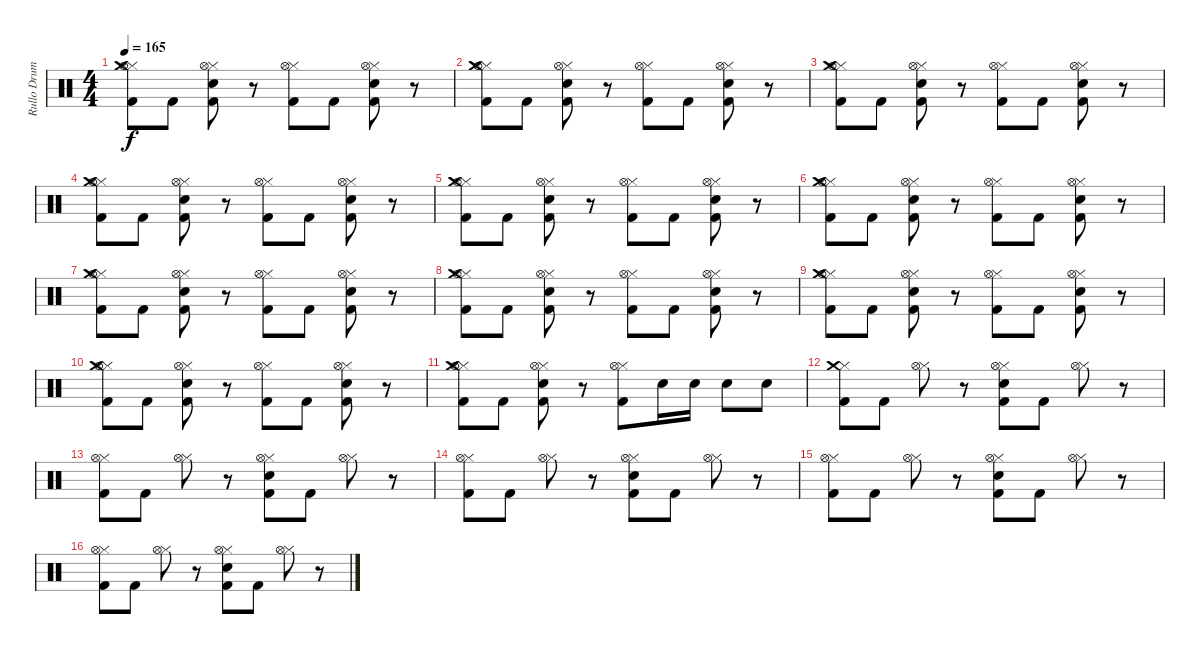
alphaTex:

\track ("Rullo Drums" "Rullo Drum") {instrument percussion}
\staff {score}
\articulation defaults
\ts (4 4)
\tempo 165
\clef neutral
\ks c
("Hi-Hat (closed)" "Kick (hit) 2" "Crash medium (hit)" "Hi-Hat (open)").8{dy f} "Kick (hit) 2".8 ("Electric Snare (hit)" "Hi-Hat (closed)" "Kick (hit) 2" "Hi-Hat (open)").8 r.8 ("Hi-Hat (closed)" "Kick (hit) 2" "Hi-Hat (open)").8 "Kick (hit) 2".8 ("Hi-Hat (closed)" "Electric Snare (hit)" "Kick (hit) 2" "Hi-Hat (open)").8 r.8 |
("Hi-Hat (closed)" "Kick (hit) 2" "Crash medium (hit)" "Hi-Hat (open)").8 "Kick (hit) 2".8 ("Electric Snare (hit)" "Hi-Hat (closed)" "Kick (hit) 2" "Hi-Hat (open)").8 r.8 ("Hi-Hat (closed)" "Kick (hit) 2" "Hi-Hat (open)").8 "Kick (hit) 2".8 ("Hi-Hat (closed)" "Electric Snare (hit)" "Kick (hit) 2" "Hi-Hat (open)").8 r.8 |
("Hi-Hat (closed)" "Kick (hit) 2" "Crash medium (hit)" "Hi-Hat (open)").8 "Kick (hit) 2".8 ("Electric Snare (hit)" "Hi-Hat (closed)" "Kick (hit) 2" "Hi-Hat (open)").8 r.8 ("Hi-Hat (closed)" "Kick (hit) 2" "Hi-Hat (open)").8 "Kick (hit) 2".8 ("Hi-Hat (closed)" "Electric Snare (hit)" "Kick (hit) 2" "Hi-Hat (open)").8 r.8 |
("Hi-Hat (closed)" "Kick (hit) 2" "Crash medium (hit)" "Hi-Hat (open)").8 "Kick (hit) 2".8 ("Electric Snare (hit)" "Hi-Hat (closed)" "Kick (hit) 2" "Hi-Hat (open)").8 r.8 ("Hi-Hat (closed)" "Kick (hit) 2" "Hi-Hat (open)").8 "Kick (hit) 2".8 ("Hi-Hat (closed)" "Electric Snare (hit)" "Kick (hit) 2" "Hi-Hat (open)").8 r.8 |
("Hi-Hat (closed)" "Kick (hit) 2" "Crash medium (hit)" "Hi-Hat (open)").8 "Kick (hit) 2".8 ("Electric Snare (hit)" "Hi-Hat (closed)" "Kick (hit) 2" "Hi-Hat (open)").8 r.8 ("Hi-Hat (closed)" "Kick (hit) 2" "Hi-Hat (open)").8 "Kick (hit) 2".8 ("Hi-Hat (closed)" "Electric Snare (hit)" "Kick (hit) 2" "Hi-Hat (open)").8 r.8 |
("Hi-Hat (closed)" "Kick (hit) 2" "Crash medium (hit)" "Hi-Hat (open)").8 "Kick (hit) 2".8 ("Electric Snare (hit)" "Hi-Hat (closed)" "Kick (hit) 2" "Hi-Hat (open)").8 r.8 ("Hi-Hat (closed)" "Kick (hit) 2" "Hi-Hat (open)").8 "Kick (hit) 2".8 ("Hi-Hat (closed)" "Electric Snare (hit)" "Kick (hit) 2" "Hi-Hat (open)").8 r.8 |
("Hi-Hat (closed)" "Kick (hit) 2" "Crash medium (hit)" "Hi-Hat (open)").8 "Kick (hit) 2".8 ("Electric Snare (hit)" "Hi-Hat (closed)" "Kick (hit) 2" "Hi-Hat (open)").8 r.8 ("Hi-Hat (closed)" "Kick (hit) 2" "Hi-Hat (open)").8 "Kick (hit) 2".8 ("Hi-Hat (closed)" "Electric Snare (hit)" "Kick (hit) 2" "Hi-Hat (open)").8 r.8 |
("Hi-Hat (closed)" "Kick (hit) 2" "Crash medium (hit)" "Hi-Hat (open)").8 "Kick (hit) 2".8 ("Electric Snare (hit)" "Hi-Hat (closed)" "Kick (hit) 2" "Hi-Hat (open)").8 r.8 ("Hi-Hat (closed)" "Kick (hit) 2" "Hi-Hat (open)").8 "Kick (hit) 2".8 ("Hi-Hat (closed)" "Electric Snare (hit)" "Kick (hit) 2" "Hi-Hat (open)").8 r.8 |
("Hi-Hat (closed)" "Kick (hit) 2" "Crash medium (hit)" "Hi-Hat (open)").8 "Kick (hit) 2".8 ("Electric Snare (hit)" "Hi-Hat (closed)" "Kick (hit) 2" "Hi-Hat (open)").8 r.8 ("Hi-Hat (closed)" "Kick (hit) 2" "Hi-Hat (open)").8 "Kick (hit) 2".8 ("Hi-Hat (closed)" "Electric Snare (hit)" "Kick (hit) 2" "Hi-Hat (open)").8 r.8 |
("Hi-Hat (closed)" "Kick (hit) 2" "Crash medium (hit)" "Hi-Hat (open)").8 "Kick (hit) 2".8 ("Electric Snare (hit)" "Hi-Hat (closed)" "Kick (hit) 2" "Hi-Hat (open)").8 r.8 ("Hi-Hat (closed)" "Kick (hit) 2" "Hi-Hat (open)").8 "Kick (hit) 2".8 ("Hi-Hat (closed)" "Electric Snare (hit)" "Kick (hit) 2" "Hi-Hat (open)").8 r.8 |
("Hi-Hat (closed)" "Kick (hit) 2" "Crash medium (hit)" "Hi-Hat (open)").8 "Kick (hit) 2".8 ("Electric Snare (hit)" "Hi-Hat (closed)" "Kick (hit) 2" "Hi-Hat (open)").8 r.8 ("Hi-Hat (closed)" "Kick (hit) 2" "Hi-Hat (open)").8 "Electric Snare (hit)".16 "Electric Snare (hit)".16 "Electric Snare (hit)".8 "Electric Snare (hit)".8 |
("Hi-Hat (closed)" "Kick (hit) 2" "Crash medium (hit)").8 "Kick (hit) 2".8 ("Hi-Hat (closed)" "Hi-Hat (open)").8 r.8 ("Hi-Hat (closed)" "Kick (hit) 2" "Electric Snare (hit)" "Hi-Hat (open)").8 "Kick (hit) 2".8 ("Hi-Hat (closed)" "Hi-Hat (open)").8 r.8 |
("Hi-Hat (closed)" "Kick (hit) 2" "Hi-Hat (open)").8 "Kick (hit) 2".8 ("Hi-Hat (closed)" "Hi-Hat (open)").8 r.8 ("Hi-Hat (closed)" "Kick (hit) 2" "Electric Snare (hit)" "Hi-Hat (open)").8 "Kick (hit) 2".8 ("Hi-Hat (closed)" "Hi-Hat (open)").8 r.8 |
("Hi-Hat (closed)" "Kick (hit) 2" "Hi-Hat (open)").8 "Kick (hit) 2".8 ("Hi-Hat (closed)" "Hi-Hat (open)").8 r.8 ("Hi-Hat (closed)" "Kick (hit) 2" "Electric Snare (hit)" "Hi-Hat (open)").8 "Kick (hit) 2".8 ("Hi-Hat (closed)" "Hi-Hat (open)").8 r.8 |
("Hi-Hat (closed)" "Kick (hit) 2" "Hi-Hat (open)").8 "Kick (hit) 2".8 ("Hi-Hat (closed)" "Hi-Hat (open)").8 r.8 ("Hi-Hat (closed)" "Kick (hit) 2" "Electric Snare (hit)" "Hi-Hat (open)").8 "Kick (hit) 2".8 ("Hi-Hat (closed)" "Hi-Hat (open)").8 r.8 |
("Hi-Hat (closed)" "Kick (hit) 2" "Hi-Hat (open)").8 "Kick (hit) 2".8 ("Hi-Hat (closed)" "Hi-Hat (open)").8 r.8 ("Hi-Hat (closed)" "Kick (hit) 2" "Electric Snare (hit)" "Hi-Hat (open)").8 "Kick (hit) 2".8 ("Hi-Hat (closed)" "Hi-Hat (open)").8 r.8
